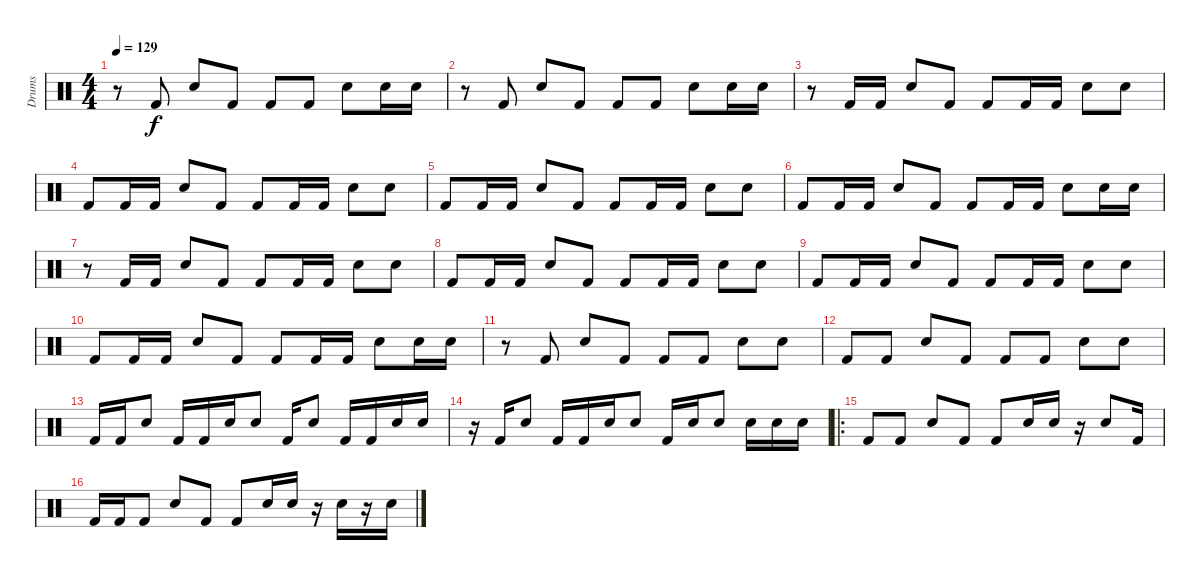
\track ("Drums" "Drums") {instrument percussion}
\staff {score}
\articulation defaults
\ts (4 4)
\tempo 129
\clef neutral
\ks c
r.8{dy f} "Kick (hit) 2".8 "Snare (hit) 2".8 "Kick (hit) 2".8 "Kick (hit) 2".8 "Kick (hit) 2".8 "Snare (hit) 2".8 "Snare (hit) 2".16 "Snare (hit) 2".16 |
r.8 "Kick (hit) 2".8 "Snare (hit) 2".8 "Kick (hit) 2".8 "Kick (hit) 2".8 "Kick (hit) 2".8 "Snare (hit) 2".8 "Snare (hit) 2".16 "Snare (hit) 2".16 |
r.8 "Kick (hit) 2".16 "Kick (hit) 2".16 "Snare (hit) 2".8 "Kick (hit) 2".8 "Kick (hit) 2".8 "Kick (hit) 2".16 "Kick (hit) 2".16 "Snare (hit) 2".8 "Snare (hit) 2".8 |
"Kick (hit) 2".8 "Kick (hit) 2".16 "Kick (hit) 2".16 "Snare (hit) 2".8 "Kick (hit) 2".8 "Kick (hit) 2".8 "Kick (hit) 2".16 "Kick (hit) 2".16 "Snare (hit) 2".8 "Snare (hit) 2".8 |
"Kick (hit) 2".8 "Kick (hit) 2".16 "Kick (hit) 2".16 "Snare (hit) 2".8 "Kick (hit) 2".8 "Kick (hit) 2".8 "Kick (hit) 2".16 "Kick (hit) 2".16 "Snare (hit) 2".8 "Snare (hit) 2".8 |
"Kick (hit) 2".8 "Kick (hit) 2".16 "Kick (hit) 2".16 "Snare (hit) 2".8 "Kick (hit) 2".8 "Kick (hit) 2".8 "Kick (hit) 2".16 "Kick (hit) 2".16 "Snare (hit) 2".8 "Snare (hit) 2".16 "Snare (hit) 2".16 |
r.8 "Kick (hit) 2".16 "Kick (hit) 2".16 "Snare (hit) 2".8 "Kick (hit) 2".8 "Kick (hit) 2".8 "Kick (hit) 2".16 "Kick (hit) 2".16 "Snare (hit) 2".8 "Snare (hit) 2".8 |
"Kick (hit) 2".8 "Kick (hit) 2".16 "Kick (hit) 2".16 "Snare (hit) 2".8 "Kick (hit) 2".8 "Kick (hit) 2".8 "Kick (hit) 2".16 "Kick (hit) 2".16 "Snare (hit) 2".8 "Snare (hit) 2".8 |
"Kick (hit) 2".8 "Kick (hit) 2".16 "Kick (hit) 2".16 "Snare (hit) 2".8 "Kick (hit) 2".8 "Kick (hit) 2".8 "Kick (hit) 2".16 "Kick (hit) 2".16 "Snare (hit) 2".8 "Snare (hit) 2".8 |
"Kick (hit) 2".8 "Kick (hit) 2".16 "Kick (hit) 2".16 "Snare (hit) 2".8 "Kick (hit) 2".8 "Kick (hit) 2".8 "Kick (hit) 2".16 "Kick (hit) 2".16 "Snare (hit) 2".8 "Snare (hit) 2".16 "Snare (hit) 2".16 |
r.8 "Kick (hit) 2".8 "Snare (hit) 2".8 "Kick (hit) 2".8 "Kick (hit) 2".8 "Kick (hit) 2".8 "Snare (hit) 2".8 "Snare (hit) 2".8 |
"Kick (hit) 2".8 "Kick (hit) 2".8 "Snare (hit) 2".8 "Kick (hit) 2".8 "Kick (hit) 2".8 "Kick (hit) 2".8 "Snare (hit) 2".8 "Snare (hit) 2".8 |
"Kick (hit) 2".16 "Kick (hit) 2".16 "Snare (hit) 2".8 "Kick (hit) 2".16 "Kick (hit) 2".16 "Snare (hit) 2".16 "Snare (hit) 2".8 "Kick (hit) 2".16 "Snare (hit) 2".8 "Kick (hit) 2".16 "Kick (hit) 2".16 "Snare (hit) 2".16 "Snare (hit) 2".16 |
r.16 "Kick (hit) 2".16 "Snare (hit) 2".8 "Kick (hit) 2".16 "Kick (hit) 2".16 "Snare (hit) 2".16 "Snare (hit) 2".8 "Kick (hit) 2".16 "Snare (hit) 2".16 "Snare (hit) 2".8 "Snare (hit) 2".16 "Snare (hit) 2".16 "Snare (hit) 2".16 |
\ro "Kick (hit) 2".8 "Kick (hit) 2".8 "Snare (hit) 2".8 "Kick (hit) 2".8 "Kick (hit) 2".8 "Snare (hit) 2".16 "Snare (hit) 2".16
r.16 "Snare (hit) 2".8 "Kick (hit) 2".16 |
"Kick (hit) 2".16 "Kick (hit) 2".16 "Kick (hit) 2".8 "Snare (hit) 2".8 "Kick (hit) 2".8 "Kick (hit) 2".8 "Snare (hit) 2".16 "Snare (hit) 2".16 r.16 "Snare (hit) 2".16 r.16 "Snare (hit) 2".16
